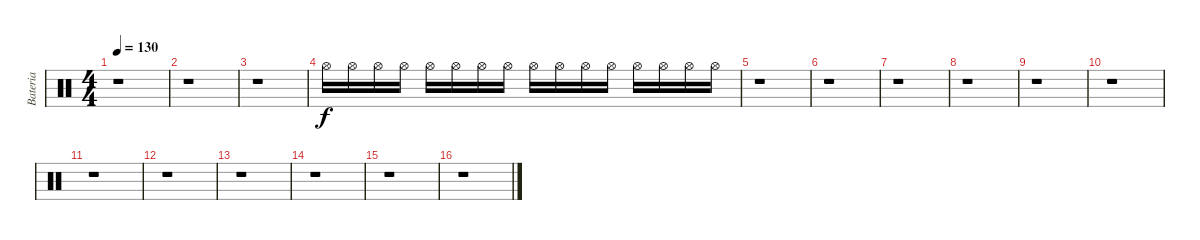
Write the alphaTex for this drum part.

\track ("Bateria" "Bateria") {instrument percussion}
\staff {score}
\articulation defaults
\ts (4 4)
\tempo 130
\clef neutral
\ks c
r.1{dy f} |
r.1 |
r.1 |
"Hi-Hat (open)".16{volume 3} "Hi-Hat (open)".16 "Hi-Hat (open)".16 "Hi-Hat (open)".16{volume 6} "Hi-Hat (open)".16 "Hi-Hat (open)".16 "Hi-Hat (open)".16{volume 9} "Hi-Hat (open)".16 "Hi-Hat (open)".16 "Hi-Hat (open)".16{volume 11} "Hi-Hat (open)".16 "Hi-Hat (open)".16 "Hi-Hat (open)".16{volume 13} "Hi-Hat (open)".16 "Hi-Hat (open)".16 "Hi-Hat (open)".16{volume 16} |
r.1 |
r.1 |
r.1 |
r.1 |
r.1 |
r.1 |
r.1 |
r.1 |
r.1 |
r.1 |
r.1 |
r.1
